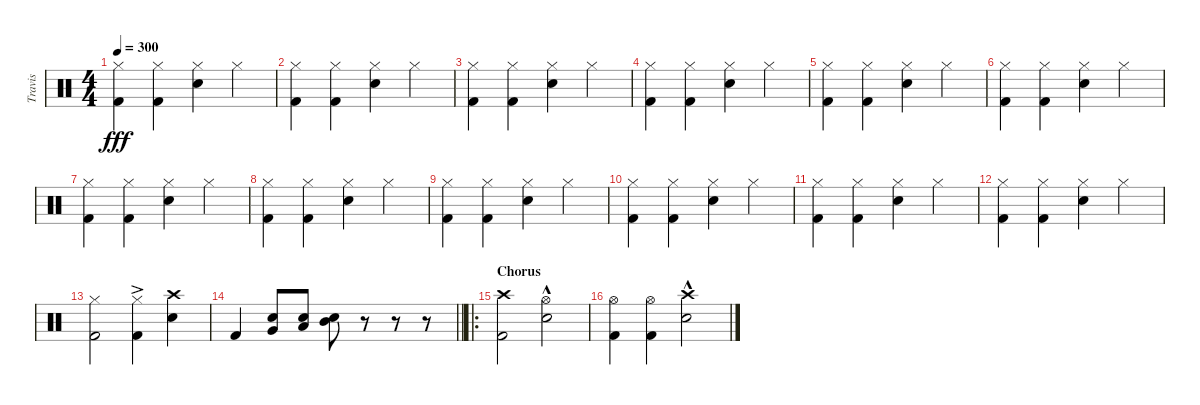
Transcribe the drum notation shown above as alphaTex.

\track ("Travis" "Travis") {instrument percussion}
\staff {score}
\articulation defaults
\ts (4 4)
\tempo 300
\clef neutral
\ks c
("Hi-Hat (closed)" "Kick (hit) 2").4{dy fff} ("Hi-Hat (closed)" "Kick (hit) 2").4 ("Hi-Hat (closed)" "Electric Snare (hit)").4 "Hi-Hat (closed)".4 |
("Hi-Hat (closed)" "Kick (hit) 2").4 ("Hi-Hat (closed)" "Kick (hit) 2").4 ("Hi-Hat (closed)" "Electric Snare (hit)").4 "Hi-Hat (closed)".4 |
("Hi-Hat (closed)" "Kick (hit) 2").4 ("Hi-Hat (closed)" "Kick (hit) 2").4 ("Hi-Hat (closed)" "Electric Snare (hit)").4 "Hi-Hat (closed)".4 |
("Hi-Hat (closed)" "Kick (hit) 2").4 ("Hi-Hat (closed)" "Kick (hit) 2").4 ("Hi-Hat (closed)" "Electric Snare (hit)").4 "Hi-Hat (closed)".4 |
("Hi-Hat (closed)" "Kick (hit) 2").4 ("Hi-Hat (closed)" "Kick (hit) 2").4 ("Hi-Hat (closed)" "Electric Snare (hit)").4 "Hi-Hat (closed)".4 |
("Hi-Hat (closed)" "Kick (hit) 2").4 ("Hi-Hat (closed)" "Kick (hit) 2").4 ("Hi-Hat (closed)" "Electric Snare (hit)").4 "Hi-Hat (closed)".4 |
("Hi-Hat (closed)" "Kick (hit) 2").4 ("Hi-Hat (closed)" "Kick (hit) 2").4 ("Hi-Hat (closed)" "Electric Snare (hit)").4 "Hi-Hat (closed)".4 |
("Hi-Hat (closed)" "Kick (hit) 2").4 ("Hi-Hat (closed)" "Kick (hit) 2").4 ("Hi-Hat (closed)" "Electric Snare (hit)").4 "Hi-Hat (closed)".4 |
("Hi-Hat (closed)" "Kick (hit) 2").4 ("Hi-Hat (closed)" "Kick (hit) 2").4 ("Hi-Hat (closed)" "Electric Snare (hit)").4 "Hi-Hat (closed)".4 |
("Hi-Hat (closed)" "Kick (hit) 2").4 ("Hi-Hat (closed)" "Kick (hit) 2").4 ("Hi-Hat (closed)" "Electric Snare (hit)").4 "Hi-Hat (closed)".4 |
("Hi-Hat (closed)" "Kick (hit) 2").4 ("Hi-Hat (closed)" "Kick (hit) 2").4 ("Hi-Hat (closed)" "Electric Snare (hit)").4 "Hi-Hat (closed)".4 |
("Hi-Hat (closed)" "Kick (hit) 2").4 ("Hi-Hat (closed)" "Kick (hit) 2").4 ("Hi-Hat (closed)" "Electric Snare (hit)").4 "Hi-Hat (closed)".4 |
("Kick (hit) 2" "Hi-Hat (closed)").2 ("Kick (hit) 2"{ac} "Hi-Hat (closed)"{ac}).4 ("Electric Snare (hit)" "Crash high (hit)").4 |
\barLineRight lightlight "Kick (hit) 2".4
("Very Low Tom (hit)" "Electric Snare (hit)").8 ("Low Tom (hit)" "Electric Snare (hit)").8 ("Mid Tom (hit)" "Electric Snare (hit)").8 r.8 r.8 r.8 |
\ro
\section ("" "Chorus")
("Crash high (hit)" "Kick (hit) 2").2 ("Hi-Hat (open)" "Electric Snare (hit)"{hac}).2 |
("Hi-Hat (open)" "Kick (hit) 2").4 ("Hi-Hat (open)" "Kick (hit) 2").4 ("Crash high (hit)" "Electric Snare (hit)"{hac}).2
